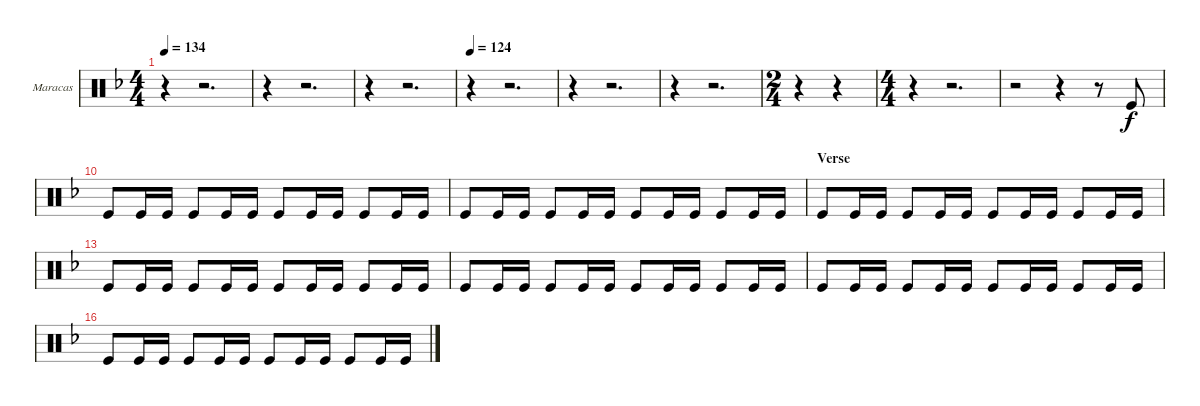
\bracketExtendMode nobrackets
\firstSystemTrackNameOrientation horizontal
\otherSystemsTrackNameOrientation horizontal
\defaultBarNumberDisplay FirstOfSystem
\track ("Maracas" "Maracas") {instrument percussion}
\staff {score}
\articulation defaults
\ts (4 4)
\tempo 134
\clef neutral
\ks f
r.4{dy f} r.2{d} |
r.4 r.2{d} |
r.4 r.2{d} |
\tempo 124
r.4 r.2{d} |
r.4 r.2{d} |
r.4 r.2{d} |
\ts (2 4)
r.4 r.4 |
\ts (4 4)
r.4 r.2{d} |
r.2 r.4 r.8 "Kick (hit)".8 |
"Kick (hit)".8 "Kick (hit)".16 "Kick (hit)".16 "Kick (hit)".8 "Kick (hit)".16 "Kick (hit)".16 "Kick (hit)".8 "Kick (hit)".16 "Kick (hit)".16 "Kick (hit)".8 "Kick (hit)".16 "Kick (hit)".16 |
"Kick (hit)".8 "Kick (hit)".16 "Kick (hit)".16 "Kick (hit)".8 "Kick (hit)".16 "Kick (hit)".16 "Kick (hit)".8 "Kick (hit)".16 "Kick (hit)".16 "Kick (hit)".8 "Kick (hit)".16 "Kick (hit)".16 |
\section ("" "Verse")
"Kick (hit)".8 "Kick (hit)".16 "Kick (hit)".16 "Kick (hit)".8 "Kick (hit)".16 "Kick (hit)".16 "Kick (hit)".8 "Kick (hit)".16 "Kick (hit)".16 "Kick (hit)".8 "Kick (hit)".16 "Kick (hit)".16 |
"Kick (hit)".8 "Kick (hit)".16 "Kick (hit)".16 "Kick (hit)".8 "Kick (hit)".16 "Kick (hit)".16 "Kick (hit)".8 "Kick (hit)".16 "Kick (hit)".16 "Kick (hit)".8 "Kick (hit)".16 "Kick (hit)".16 |
"Kick (hit)".8 "Kick (hit)".16 "Kick (hit)".16 "Kick (hit)".8 "Kick (hit)".16 "Kick (hit)".16 "Kick (hit)".8 "Kick (hit)".16 "Kick (hit)".16 "Kick (hit)".8 "Kick (hit)".16 "Kick (hit)".16 |
"Kick (hit)".8 "Kick (hit)".16 "Kick (hit)".16 "Kick (hit)".8 "Kick (hit)".16 "Kick (hit)".16 "Kick (hit)".8 "Kick (hit)".16 "Kick (hit)".16 "Kick (hit)".8 "Kick (hit)".16 "Kick (hit)".16 |
"Kick (hit)".8 "Kick (hit)".16 "Kick (hit)".16 "Kick (hit)".8 "Kick (hit)".16 "Kick (hit)".16 "Kick (hit)".8 "Kick (hit)".16 "Kick (hit)".16 "Kick (hit)".8 "Kick (hit)".16 "Kick (hit)".16
